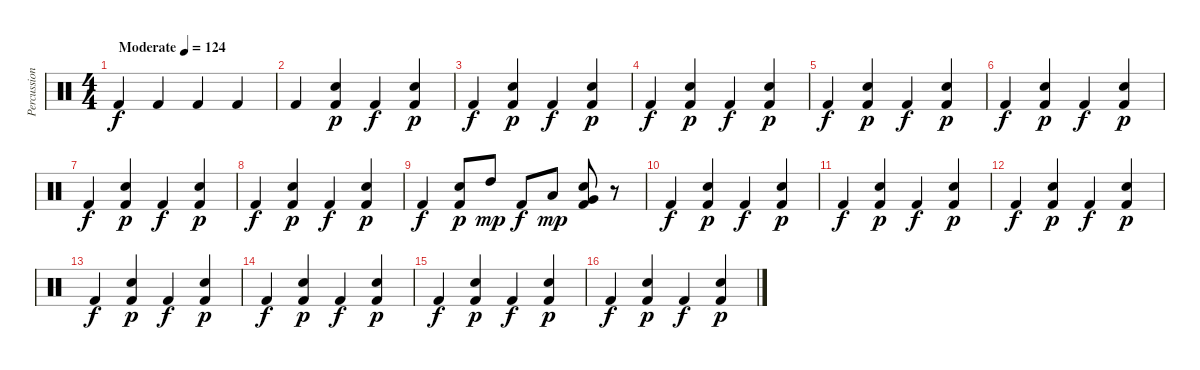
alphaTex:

\track ("Percussion" "Percussion") {instrument percussion}
\staff {score}
\articulation defaults
\ts (4 4)
\tempo (124 "Moderate")
\clef neutral
\ks c "Kick (hit) 2".4{dy f} "Kick (hit) 2".4 "Kick (hit) 2".4 "Kick (hit) 2".4
|
"Kick (hit) 2".4 ("Snare (hit) 2" "Kick (hit) 2").4{dy p} "Kick (hit) 2".4{dy f} ("Snare (hit) 2" "Kick (hit) 2").4{dy p} |
"Kick (hit) 2".4{dy f} ("Snare (hit) 2" "Kick (hit) 2").4{dy p} "Kick (hit) 2".4{dy f} ("Snare (hit) 2" "Kick (hit) 2").4{dy p} |
"Kick (hit) 2".4{dy f} ("Snare (hit) 2" "Kick (hit) 2").4{dy p} "Kick (hit) 2".4{dy f} ("Snare (hit) 2" "Kick (hit) 2").4{dy p} |
"Kick (hit) 2".4{dy f} ("Snare (hit) 2" "Kick (hit) 2").4{dy p} "Kick (hit) 2".4{dy f} ("Snare (hit) 2" "Kick (hit) 2").4{dy p} |
"Kick (hit) 2".4{dy f} ("Snare (hit) 2" "Kick (hit) 2").4{dy p} "Kick (hit) 2".4{dy f} ("Snare (hit) 2" "Kick (hit) 2").4{dy p} |
"Kick (hit) 2".4{dy f} ("Snare (hit) 2" "Kick (hit) 2").4{dy p} "Kick (hit) 2".4{dy f} ("Snare (hit) 2" "Kick (hit) 2").4{dy p} |
"Kick (hit) 2".4{dy f} ("Snare (hit) 2" "Kick (hit) 2").4{dy p} "Kick (hit) 2".4{dy f} ("Snare (hit) 2" "Kick (hit) 2").4{dy p} |
"Kick (hit) 2".4{dy f} ("Snare (hit) 2" "Kick (hit) 2").8{dy p} "High Tom (hit)".8{dy mp} "Kick (hit) 2".8{dy f} "Low Tom (hit)".8{dy mp} ("Snare (hit) 2" "Very Low Tom (hit)" "Kick (hit) 2").8 r.8 |
"Kick (hit) 2".4{dy f} ("Snare (hit) 2" "Kick (hit) 2").4{dy p} "Kick (hit) 2".4{dy f} ("Snare (hit) 2" "Kick (hit) 2").4{dy p} |
"Kick (hit) 2".4{dy f} ("Snare (hit) 2" "Kick (hit) 2").4{dy p} "Kick (hit) 2".4{dy f} ("Snare (hit) 2" "Kick (hit) 2").4{dy p} |
"Kick (hit) 2".4{dy f} ("Snare (hit) 2" "Kick (hit) 2").4{dy p} "Kick (hit) 2".4{dy f} ("Snare (hit) 2" "Kick (hit) 2").4{dy p} |
"Kick (hit) 2".4{dy f} ("Snare (hit) 2" "Kick (hit) 2").4{dy p} "Kick (hit) 2".4{dy f} ("Snare (hit) 2" "Kick (hit) 2").4{dy p} |
"Kick (hit) 2".4{dy f} ("Snare (hit) 2" "Kick (hit) 2").4{dy p} "Kick (hit) 2".4{dy f} ("Snare (hit) 2" "Kick (hit) 2").4{dy p} |
"Kick (hit) 2".4{dy f} ("Snare (hit) 2" "Kick (hit) 2").4{dy p} "Kick (hit) 2".4{dy f} ("Snare (hit) 2" "Kick (hit) 2").4{dy p} |
"Kick (hit) 2".4{dy f} ("Snare (hit) 2" "Kick (hit) 2").4{dy p} "Kick (hit) 2".4{dy f} ("Snare (hit) 2" "Kick (hit) 2").4{dy p}
